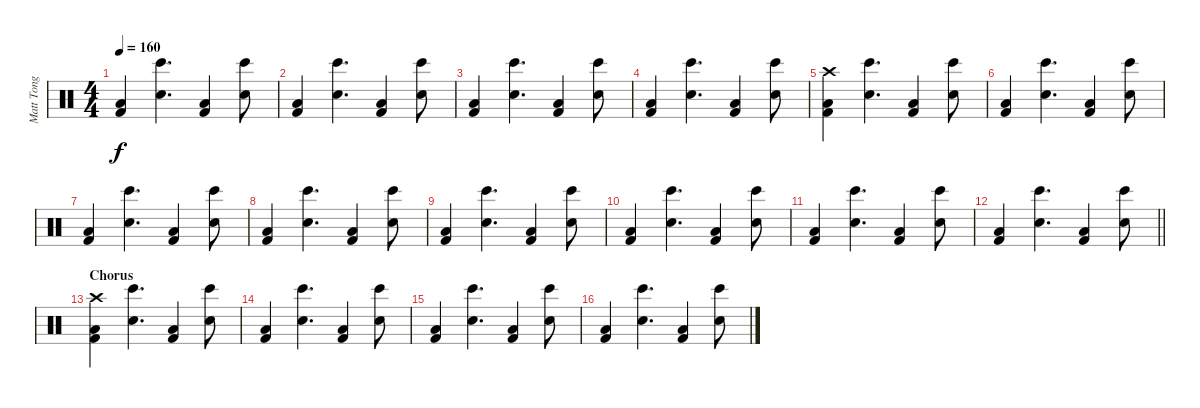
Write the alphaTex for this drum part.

\track ("Matt Tong - Drums" "Matt Tong ") {instrument percussion}
\staff {score}
\articulation defaults
\ts (4 4)
\tempo 160
\clef neutral
\ks c
("Kick (hit) 2" "Low Floor Tom (hit)").4{dy f} ("Bongo High (hit)" "Snare (hit) 2").4{d} ("Kick (hit) 2" "Low Floor Tom (hit)").4 ("Bongo High (hit)" "Snare (hit) 2").8 |
("Kick (hit) 2" "Low Floor Tom (hit)").4 ("Bongo High (hit)" "Snare (hit) 2").4{d} ("Kick (hit) 2" "Low Floor Tom (hit)").4 ("Bongo High (hit)" "Snare (hit) 2").8 |
("Kick (hit) 2" "Low Floor Tom (hit)").4 ("Bongo High (hit)" "Snare (hit) 2").4{d} ("Kick (hit) 2" "Low Floor Tom (hit)").4 ("Bongo High (hit)" "Snare (hit) 2").8 |
("Kick (hit) 2" "Low Floor Tom (hit)").4 ("Bongo High (hit)" "Snare (hit) 2").4{d} ("Kick (hit) 2" "Low Floor Tom (hit)").4 ("Bongo High (hit)" "Snare (hit) 2").8 |
("Kick (hit) 2" "Low Floor Tom (hit)" "Crash high (hit)").4 ("Bongo High (hit)" "Snare (hit) 2").4{d} ("Kick (hit) 2" "Low Floor Tom (hit)").4 ("Bongo High (hit)" "Snare (hit) 2").8 |
("Kick (hit) 2" "Low Floor Tom (hit)").4 ("Bongo High (hit)" "Snare (hit) 2").4{d} ("Kick (hit) 2" "Low Floor Tom (hit)").4 ("Bongo High (hit)" "Snare (hit) 2").8 |
("Kick (hit) 2" "Low Floor Tom (hit)").4 ("Bongo High (hit)" "Snare (hit) 2").4{d} ("Kick (hit) 2" "Low Floor Tom (hit)").4 ("Bongo High (hit)" "Snare (hit) 2").8 |
("Kick (hit) 2" "Low Floor Tom (hit)").4 ("Bongo High (hit)" "Snare (hit) 2").4{d} ("Kick (hit) 2" "Low Floor Tom (hit)").4 ("Bongo High (hit)" "Snare (hit) 2").8 |
("Kick (hit) 2" "Low Floor Tom (hit)").4 ("Bongo High (hit)" "Snare (hit) 2").4{d} ("Kick (hit) 2" "Low Floor Tom (hit)").4 ("Bongo High (hit)" "Snare (hit) 2").8 |
("Kick (hit) 2" "Low Floor Tom (hit)").4 ("Bongo High (hit)" "Snare (hit) 2").4{d} ("Kick (hit) 2" "Low Floor Tom (hit)").4 ("Bongo High (hit)" "Snare (hit) 2").8 |
("Kick (hit) 2" "Low Floor Tom (hit)").4 ("Bongo High (hit)" "Snare (hit) 2").4{d} ("Kick (hit) 2" "Low Floor Tom (hit)").4 ("Bongo High (hit)" "Snare (hit) 2").8 |
\barLineRight lightlight
("Kick (hit) 2" "Low Floor Tom (hit)").4 ("Bongo High (hit)" "Snare (hit) 2").4{d} ("Kick (hit) 2" "Low Floor Tom (hit)").4 ("Bongo High (hit)" "Snare (hit) 2").8 |
\section ("" "Chorus")
("Kick (hit) 2" "Low Floor Tom (hit)" "Crash high (hit)").4 ("Bongo High (hit)" "Snare (hit) 2").4{d} ("Kick (hit) 2" "Low Floor Tom (hit)").4 ("Bongo High (hit)" "Snare (hit) 2").8 |
("Kick (hit) 2" "Low Floor Tom (hit)").4 ("Bongo High (hit)" "Snare (hit) 2").4{d} ("Kick (hit) 2" "Low Floor Tom (hit)").4 ("Bongo High (hit)" "Snare (hit) 2").8 |
("Kick (hit) 2" "Low Floor Tom (hit)").4 ("Bongo High (hit)" "Snare (hit) 2").4{d} ("Kick (hit) 2" "Low Floor Tom (hit)").4 ("Bongo High (hit)" "Snare (hit) 2").8 |
("Kick (hit) 2" "Low Floor Tom (hit)").4 ("Bongo High (hit)" "Snare (hit) 2").4{d} ("Kick (hit) 2" "Low Floor Tom (hit)").4 ("Bongo High (hit)" "Snare (hit) 2").8
